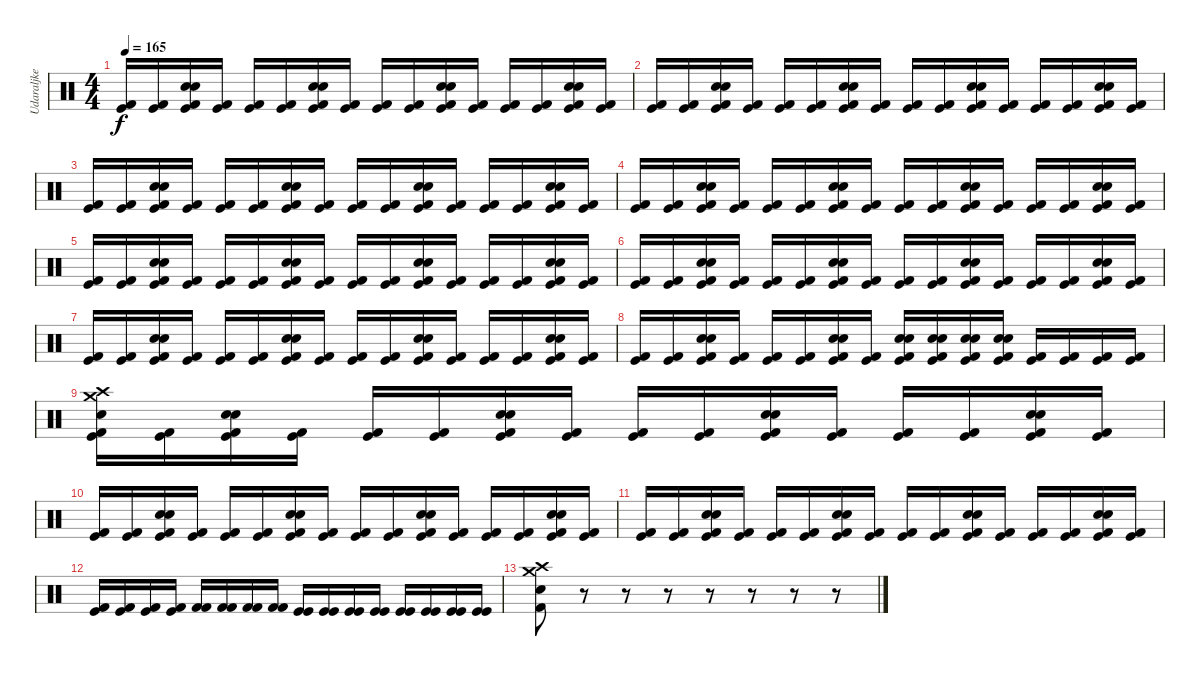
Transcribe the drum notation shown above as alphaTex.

\track ("Udaraljke" "Udaraljke") {instrument percussion}
\staff {score}
\articulation defaults
\ts (4 4)
\tempo 165
\clef neutral
\ks c
("Kick (hit) 2" "Kick (hit)").16{dy f} ("Kick (hit) 2" "Kick (hit)").16 ("Snare (hit) 2" "Snare (hit) 2" "Kick (hit) 2" "Kick (hit)").16 ("Kick (hit) 2" "Kick (hit)").16 ("Kick (hit) 2" "Kick (hit)").16 ("Kick (hit) 2" "Kick (hit)").16 ("Snare (hit) 2" "Snare (hit) 2" "Kick (hit) 2" "Kick (hit)").16 ("Kick (hit) 2" "Kick (hit)").16 ("Kick (hit) 2" "Kick (hit)").16 ("Kick (hit) 2" "Kick (hit)").16 ("Snare (hit) 2" "Snare (hit) 2" "Kick (hit) 2" "Kick (hit)").16 ("Kick (hit) 2" "Kick (hit)").16 ("Kick (hit) 2" "Kick (hit)").16 ("Kick (hit) 2" "Kick (hit)").16 ("Snare (hit) 2" "Snare (hit) 2" "Kick (hit) 2" "Kick (hit)").16 ("Kick (hit) 2" "Kick (hit)").16 |
("Kick (hit) 2" "Kick (hit)").16 ("Kick (hit) 2" "Kick (hit)").16 ("Snare (hit) 2" "Snare (hit) 2" "Kick (hit) 2" "Kick (hit)").16 ("Kick (hit) 2" "Kick (hit)").16 ("Kick (hit) 2" "Kick (hit)").16 ("Kick (hit) 2" "Kick (hit)").16 ("Snare (hit) 2" "Snare (hit) 2" "Kick (hit) 2" "Kick (hit)").16 ("Kick (hit) 2" "Kick (hit)").16 ("Kick (hit) 2" "Kick (hit)").16 ("Kick (hit) 2" "Kick (hit)").16 ("Snare (hit) 2" "Snare (hit) 2" "Kick (hit) 2" "Kick (hit)").16 ("Kick (hit) 2" "Kick (hit)").16 ("Kick (hit) 2" "Kick (hit)").16 ("Kick (hit) 2" "Kick (hit)").16 ("Snare (hit) 2" "Snare (hit) 2" "Kick (hit) 2" "Kick (hit)").16 ("Kick (hit) 2" "Kick (hit)").16 |
("Kick (hit) 2" "Kick (hit)").16 ("Kick (hit) 2" "Kick (hit)").16 ("Snare (hit) 2" "Snare (hit) 2" "Kick (hit) 2" "Kick (hit)").16 ("Kick (hit) 2" "Kick (hit)").16 ("Kick (hit) 2" "Kick (hit)").16 ("Kick (hit) 2" "Kick (hit)").16 ("Snare (hit) 2" "Snare (hit) 2" "Kick (hit) 2" "Kick (hit)").16 ("Kick (hit) 2" "Kick (hit)").16 ("Kick (hit) 2" "Kick (hit)").16 ("Kick (hit) 2" "Kick (hit)").16 ("Snare (hit) 2" "Snare (hit) 2" "Kick (hit) 2" "Kick (hit)").16 ("Kick (hit) 2" "Kick (hit)").16 ("Kick (hit) 2" "Kick (hit)").16 ("Kick (hit) 2" "Kick (hit)").16 ("Snare (hit) 2" "Snare (hit) 2" "Kick (hit) 2" "Kick (hit)").16 ("Kick (hit) 2" "Kick (hit)").16 |
("Kick (hit) 2" "Kick (hit)").16 ("Kick (hit) 2" "Kick (hit)").16 ("Snare (hit) 2" "Snare (hit) 2" "Kick (hit) 2" "Kick (hit)").16 ("Kick (hit) 2" "Kick (hit)").16 ("Kick (hit) 2" "Kick (hit)").16 ("Kick (hit) 2" "Kick (hit)").16 ("Snare (hit) 2" "Snare (hit) 2" "Kick (hit) 2" "Kick (hit)").16 ("Kick (hit) 2" "Kick (hit)").16 ("Kick (hit) 2" "Kick (hit)").16 ("Kick (hit) 2" "Kick (hit)").16 ("Snare (hit) 2" "Snare (hit) 2" "Kick (hit) 2" "Kick (hit)").16 ("Kick (hit) 2" "Kick (hit)").16 ("Kick (hit) 2" "Kick (hit)").16 ("Kick (hit) 2" "Kick (hit)").16 ("Snare (hit) 2" "Snare (hit) 2" "Kick (hit) 2" "Kick (hit)").16 ("Kick (hit) 2" "Kick (hit)").16 |
("Kick (hit) 2" "Kick (hit)").16 ("Kick (hit) 2" "Kick (hit)").16 ("Snare (hit) 2" "Snare (hit) 2" "Kick (hit) 2" "Kick (hit)").16 ("Kick (hit) 2" "Kick (hit)").16 ("Kick (hit) 2" "Kick (hit)").16 ("Kick (hit) 2" "Kick (hit)").16 ("Snare (hit) 2" "Snare (hit) 2" "Kick (hit) 2" "Kick (hit)").16 ("Kick (hit) 2" "Kick (hit)").16 ("Kick (hit) 2" "Kick (hit)").16 ("Kick (hit) 2" "Kick (hit)").16 ("Snare (hit) 2" "Snare (hit) 2" "Kick (hit) 2" "Kick (hit)").16 ("Kick (hit) 2" "Kick (hit)").16 ("Kick (hit) 2" "Kick (hit)").16 ("Kick (hit) 2" "Kick (hit)").16 ("Snare (hit) 2" "Snare (hit) 2" "Kick (hit) 2" "Kick (hit)").16 ("Kick (hit) 2" "Kick (hit)").16 |
("Kick (hit) 2" "Kick (hit)").16 ("Kick (hit) 2" "Kick (hit)").16 ("Snare (hit) 2" "Snare (hit) 2" "Kick (hit) 2" "Kick (hit)").16 ("Kick (hit) 2" "Kick (hit)").16 ("Kick (hit) 2" "Kick (hit)").16 ("Kick (hit) 2" "Kick (hit)").16 ("Snare (hit) 2" "Snare (hit) 2" "Kick (hit) 2" "Kick (hit)").16 ("Kick (hit) 2" "Kick (hit)").16 ("Kick (hit) 2" "Kick (hit)").16 ("Kick (hit) 2" "Kick (hit)").16 ("Snare (hit) 2" "Snare (hit) 2" "Kick (hit) 2" "Kick (hit)").16 ("Kick (hit) 2" "Kick (hit)").16 ("Kick (hit) 2" "Kick (hit)").16 ("Kick (hit) 2" "Kick (hit)").16 ("Snare (hit) 2" "Snare (hit) 2" "Kick (hit) 2" "Kick (hit)").16 ("Kick (hit) 2" "Kick (hit)").16 |
("Kick (hit) 2" "Kick (hit)").16 ("Kick (hit) 2" "Kick (hit)").16 ("Snare (hit) 2" "Snare (hit) 2" "Kick (hit) 2" "Kick (hit)").16 ("Kick (hit) 2" "Kick (hit)").16 ("Kick (hit) 2" "Kick (hit)").16 ("Kick (hit) 2" "Kick (hit)").16 ("Snare (hit) 2" "Snare (hit) 2" "Kick (hit) 2" "Kick (hit)").16 ("Kick (hit) 2" "Kick (hit)").16 ("Kick (hit) 2" "Kick (hit)").16 ("Kick (hit) 2" "Kick (hit)").16 ("Snare (hit) 2" "Snare (hit) 2" "Kick (hit) 2" "Kick (hit)").16 ("Kick (hit) 2" "Kick (hit)").16 ("Kick (hit) 2" "Kick (hit)").16 ("Kick (hit) 2" "Kick (hit)").16 ("Snare (hit) 2" "Snare (hit) 2" "Kick (hit) 2" "Kick (hit)").16 ("Kick (hit) 2" "Kick (hit)").16 |
("Kick (hit) 2" "Kick (hit)").16 ("Kick (hit) 2" "Kick (hit)").16 ("Snare (hit) 2" "Snare (hit) 2" "Kick (hit) 2" "Kick (hit)").16 ("Kick (hit) 2" "Kick (hit)").16 ("Kick (hit) 2" "Kick (hit)").16 ("Kick (hit) 2" "Kick (hit)").16 ("Snare (hit) 2" "Snare (hit) 2" "Kick (hit) 2" "Kick (hit)").16 ("Kick (hit) 2" "Kick (hit)").16 ("Snare (hit) 2" "Snare (hit) 2" "Kick (hit) 2" "Kick (hit)").16 ("Snare (hit) 2" "Snare (hit) 2" "Kick (hit) 2" "Kick (hit)").16 ("Snare (hit) 2" "Snare (hit) 2" "Kick (hit) 2" "Kick (hit)").16 ("Snare (hit) 2" "Snare (hit) 2" "Kick (hit) 2" "Kick (hit)").16 ("Kick (hit) 2" "Kick (hit)").16 ("Kick (hit) 2" "Kick (hit)").16 ("Kick (hit) 2" "Kick (hit)").16 ("Kick (hit) 2" "Kick (hit)").16 |
("Crash medium (hit)" "Crash high (hit)" "Snare (hit) 2" "Kick (hit) 2" "Kick (hit)").16 ("Kick (hit) 2" "Kick (hit)").16 ("Snare (hit) 2" "Snare (hit) 2" "Kick (hit) 2" "Kick (hit)").16 ("Kick (hit) 2" "Kick (hit)").16 ("Kick (hit) 2" "Kick (hit)").16 ("Kick (hit) 2" "Kick (hit)").16 ("Snare (hit) 2" "Snare (hit) 2" "Kick (hit) 2" "Kick (hit)").16 ("Kick (hit) 2" "Kick (hit)").16 ("Kick (hit) 2" "Kick (hit)").16 ("Kick (hit) 2" "Kick (hit)").16 ("Snare (hit) 2" "Snare (hit) 2" "Kick (hit) 2" "Kick (hit)").16 ("Kick (hit) 2" "Kick (hit)").16 ("Kick (hit) 2" "Kick (hit)").16 ("Kick (hit) 2" "Kick (hit)").16 ("Snare (hit) 2" "Snare (hit) 2" "Kick (hit) 2" "Kick (hit)").16 ("Kick (hit) 2" "Kick (hit)").16 |
("Kick (hit) 2" "Kick (hit)").16 ("Kick (hit) 2" "Kick (hit)").16 ("Snare (hit) 2" "Snare (hit) 2" "Kick (hit) 2" "Kick (hit)").16 ("Kick (hit) 2" "Kick (hit)").16 ("Kick (hit) 2" "Kick (hit)").16 ("Kick (hit) 2" "Kick (hit)").16 ("Snare (hit) 2" "Snare (hit) 2" "Kick (hit) 2" "Kick (hit)").16 ("Kick (hit) 2" "Kick (hit)").16 ("Kick (hit) 2" "Kick (hit)").16 ("Kick (hit) 2" "Kick (hit)").16 ("Snare (hit) 2" "Snare (hit) 2" "Kick (hit) 2" "Kick (hit)").16 ("Kick (hit) 2" "Kick (hit)").16 ("Kick (hit) 2" "Kick (hit)").16 ("Kick (hit) 2" "Kick (hit)").16 ("Snare (hit) 2" "Snare (hit) 2" "Kick (hit) 2" "Kick (hit)").16 ("Kick (hit) 2" "Kick (hit)").16 |
("Kick (hit) 2" "Kick (hit)").16 ("Kick (hit) 2" "Kick (hit)").16 ("Snare (hit) 2" "Snare (hit) 2" "Kick (hit) 2" "Kick (hit)").16 ("Kick (hit) 2" "Kick (hit)").16 ("Kick (hit) 2" "Kick (hit)").16 ("Kick (hit) 2" "Kick (hit)").16 ("Snare (hit) 2" "Snare (hit) 2" "Kick (hit) 2" "Kick (hit)").16 ("Kick (hit) 2" "Kick (hit)").16 ("Kick (hit) 2" "Kick (hit)").16 ("Kick (hit) 2" "Kick (hit)").16 ("Snare (hit) 2" "Snare (hit) 2" "Kick (hit) 2" "Kick (hit)").16 ("Kick (hit) 2" "Kick (hit)").16 ("Kick (hit) 2" "Kick (hit)").16 ("Kick (hit) 2" "Kick (hit)").16 ("Snare (hit) 2" "Snare (hit) 2" "Kick (hit) 2" "Kick (hit)").16 ("Kick (hit) 2" "Kick (hit)").16 |
("Kick (hit) 2" "Kick (hit)").16 ("Kick (hit) 2" "Kick (hit)").16 ("Kick (hit) 2" "Kick (hit)").16 ("Kick (hit) 2" "Kick (hit)").16 ("Kick (hit) 2" "Kick (hit) 2").16 ("Kick (hit) 2" "Kick (hit) 2").16 ("Kick (hit) 2" "Kick (hit) 2").16 ("Kick (hit) 2" "Kick (hit) 2").16 ("Kick (hit)" "Kick (hit)").16 ("Kick (hit)" "Kick (hit)").16 ("Kick (hit)" "Kick (hit)").16 ("Kick (hit)" "Kick (hit)").16 ("Kick (hit)" "Kick (hit)").16 ("Kick (hit)" "Kick (hit)").16 ("Kick (hit)" "Kick (hit)").16 ("Kick (hit)" "Kick (hit)").16 |
("Crash medium (hit)" "Crash high (hit)" "Snare (hit) 2" "Kick (hit) 2").8 r.8 r.8 r.8 r.8 r.8 r.8 r.8
